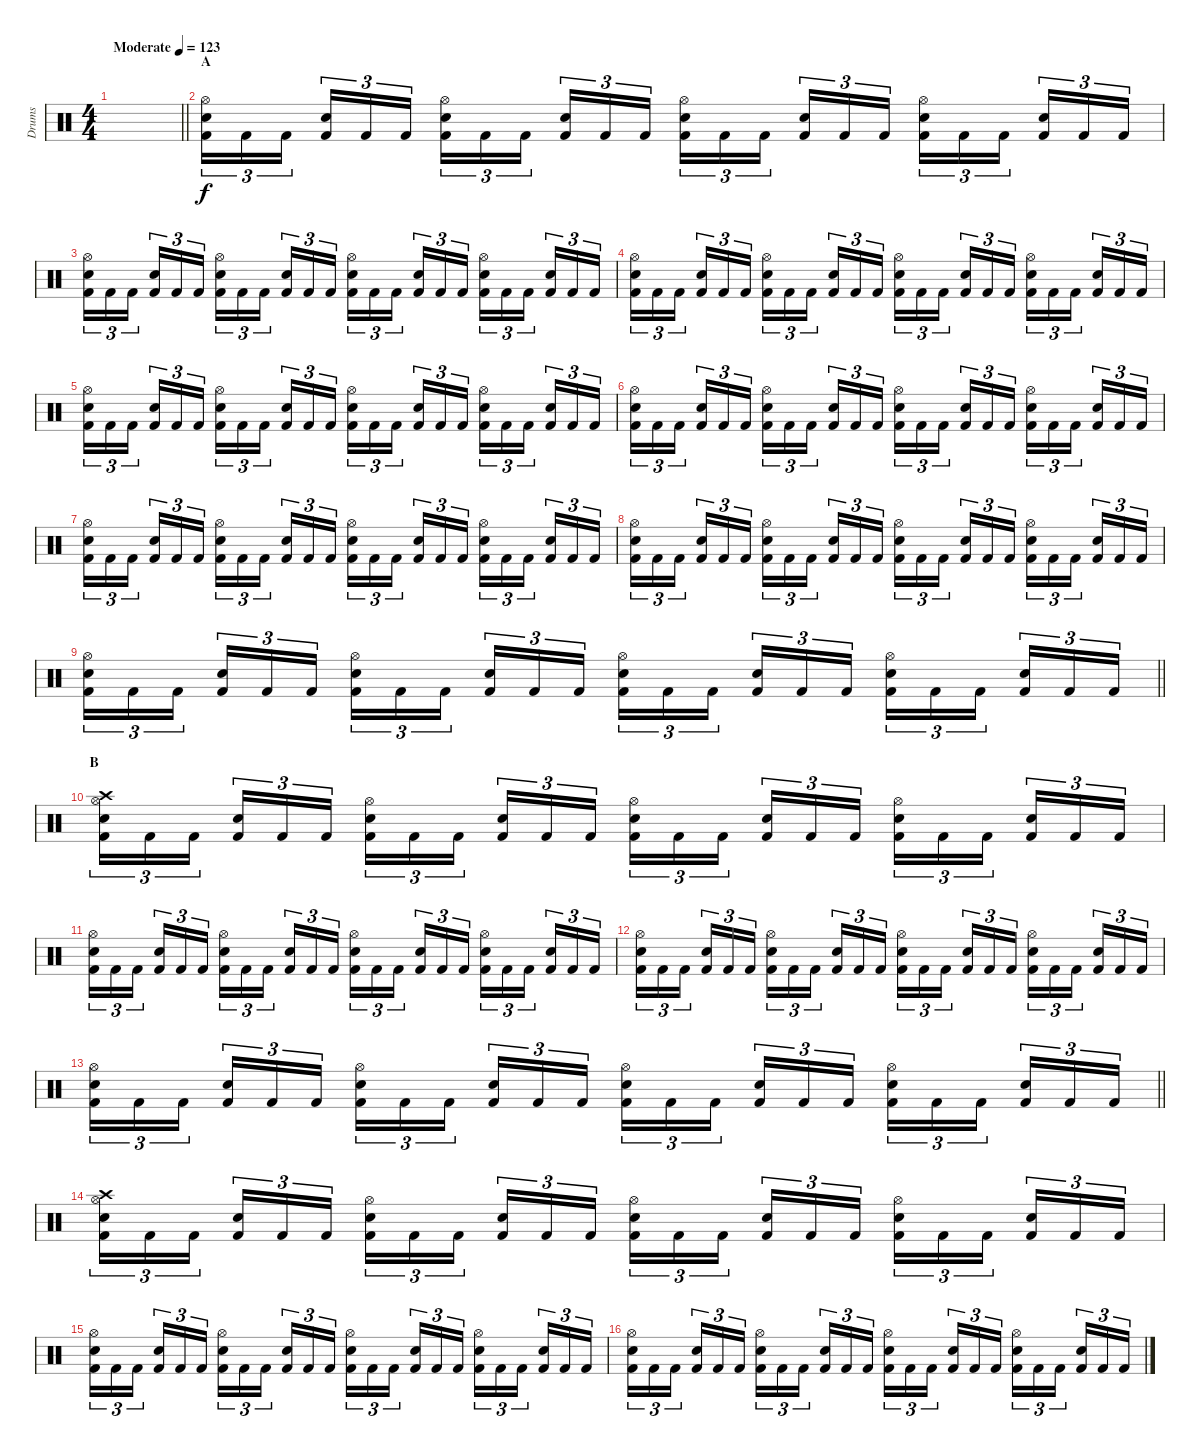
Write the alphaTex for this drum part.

\track ("Drums" "Drums") {instrument percussion}
\staff {score}
\articulation defaults
\ts (4 4)
\tempo (123 "Moderate")
\clef neutral
\barLineRight lightlight
\ks c
|
\section ("" "A")
("Hi-Hat (open)" "Snare (hit) 2" "Kick (hit) 2").16{tu (3 2)} "Kick (hit) 2".16{tu (3 2)} "Kick (hit) 2".16{tu (3 2) beam splitsecondary} ("Snare (hit) 2" "Kick (hit) 2").16{tu (3 2)} "Kick (hit) 2".16{tu (3 2)} "Kick (hit) 2".16{tu (3 2)} ("Hi-Hat (open)" "Snare (hit) 2" "Kick (hit) 2").16{tu (3 2)} "Kick (hit) 2".16{tu (3 2)} "Kick (hit) 2".16{tu (3 2) beam splitsecondary} ("Snare (hit) 2" "Kick (hit) 2").16{tu (3 2)} "Kick (hit) 2".16{tu (3 2)} "Kick (hit) 2".16{tu (3 2)} ("Hi-Hat (open)" "Snare (hit) 2" "Kick (hit) 2").16{tu (3 2)} "Kick (hit) 2".16{tu (3 2)} "Kick (hit) 2".16{tu (3 2) beam splitsecondary} ("Snare (hit) 2" "Kick (hit) 2").16{tu (3 2)} "Kick (hit) 2".16{tu (3 2)} "Kick (hit) 2".16{tu (3 2)} ("Hi-Hat (open)" "Snare (hit) 2" "Kick (hit) 2").16{tu (3 2)} "Kick (hit) 2".16{tu (3 2)} "Kick (hit) 2".16{tu (3 2) beam splitsecondary} ("Snare (hit) 2" "Kick (hit) 2").16{tu (3 2)} "Kick (hit) 2".16{tu (3 2)} "Kick (hit) 2".16{tu (3 2)} |
("Hi-Hat (open)" "Snare (hit) 2" "Kick (hit) 2").16{tu (3 2)} "Kick (hit) 2".16{tu (3 2)} "Kick (hit) 2".16{tu (3 2) beam splitsecondary} ("Snare (hit) 2" "Kick (hit) 2").16{tu (3 2)} "Kick (hit) 2".16{tu (3 2)} "Kick (hit) 2".16{tu (3 2)} ("Hi-Hat (open)" "Snare (hit) 2" "Kick (hit) 2").16{tu (3 2)} "Kick (hit) 2".16{tu (3 2)} "Kick (hit) 2".16{tu (3 2) beam splitsecondary} ("Snare (hit) 2" "Kick (hit) 2").16{tu (3 2)} "Kick (hit) 2".16{tu (3 2)} "Kick (hit) 2".16{tu (3 2)} ("Hi-Hat (open)" "Snare (hit) 2" "Kick (hit) 2").16{tu (3 2)} "Kick (hit) 2".16{tu (3 2)} "Kick (hit) 2".16{tu (3 2) beam splitsecondary} ("Snare (hit) 2" "Kick (hit) 2").16{tu (3 2)} "Kick (hit) 2".16{tu (3 2)} "Kick (hit) 2".16{tu (3 2)} ("Hi-Hat (open)" "Snare (hit) 2" "Kick (hit) 2").16{tu (3 2)} "Kick (hit) 2".16{tu (3 2)} "Kick (hit) 2".16{tu (3 2) beam splitsecondary} ("Snare (hit) 2" "Kick (hit) 2").16{tu (3 2)} "Kick (hit) 2".16{tu (3 2)} "Kick (hit) 2".16{tu (3 2)} |
("Hi-Hat (open)" "Snare (hit) 2" "Kick (hit) 2").16{tu (3 2)} "Kick (hit) 2".16{tu (3 2)} "Kick (hit) 2".16{tu (3 2) beam splitsecondary} ("Snare (hit) 2" "Kick (hit) 2").16{tu (3 2)} "Kick (hit) 2".16{tu (3 2)} "Kick (hit) 2".16{tu (3 2)} ("Hi-Hat (open)" "Snare (hit) 2" "Kick (hit) 2").16{tu (3 2)} "Kick (hit) 2".16{tu (3 2)} "Kick (hit) 2".16{tu (3 2) beam splitsecondary} ("Snare (hit) 2" "Kick (hit) 2").16{tu (3 2)} "Kick (hit) 2".16{tu (3 2)} "Kick (hit) 2".16{tu (3 2)} ("Hi-Hat (open)" "Snare (hit) 2" "Kick (hit) 2").16{tu (3 2)} "Kick (hit) 2".16{tu (3 2)} "Kick (hit) 2".16{tu (3 2) beam splitsecondary} ("Snare (hit) 2" "Kick (hit) 2").16{tu (3 2)} "Kick (hit) 2".16{tu (3 2)} "Kick (hit) 2".16{tu (3 2)} ("Hi-Hat (open)" "Snare (hit) 2" "Kick (hit) 2").16{tu (3 2)} "Kick (hit) 2".16{tu (3 2)} "Kick (hit) 2".16{tu (3 2) beam splitsecondary} ("Snare (hit) 2" "Kick (hit) 2").16{tu (3 2)} "Kick (hit) 2".16{tu (3 2)} "Kick (hit) 2".16{tu (3 2)} |
("Hi-Hat (open)" "Snare (hit) 2" "Kick (hit) 2").16{tu (3 2)} "Kick (hit) 2".16{tu (3 2)} "Kick (hit) 2".16{tu (3 2) beam splitsecondary} ("Snare (hit) 2" "Kick (hit) 2").16{tu (3 2)} "Kick (hit) 2".16{tu (3 2)} "Kick (hit) 2".16{tu (3 2)} ("Hi-Hat (open)" "Snare (hit) 2" "Kick (hit) 2").16{tu (3 2)} "Kick (hit) 2".16{tu (3 2)} "Kick (hit) 2".16{tu (3 2) beam splitsecondary} ("Snare (hit) 2" "Kick (hit) 2").16{tu (3 2)} "Kick (hit) 2".16{tu (3 2)} "Kick (hit) 2".16{tu (3 2)} ("Hi-Hat (open)" "Snare (hit) 2" "Kick (hit) 2").16{tu (3 2)} "Kick (hit) 2".16{tu (3 2)} "Kick (hit) 2".16{tu (3 2) beam splitsecondary} ("Snare (hit) 2" "Kick (hit) 2").16{tu (3 2)} "Kick (hit) 2".16{tu (3 2)} "Kick (hit) 2".16{tu (3 2)} ("Hi-Hat (open)" "Snare (hit) 2" "Kick (hit) 2").16{tu (3 2)} "Kick (hit) 2".16{tu (3 2)} "Kick (hit) 2".16{tu (3 2) beam splitsecondary} ("Snare (hit) 2" "Kick (hit) 2").16{tu (3 2)} "Kick (hit) 2".16{tu (3 2)} "Kick (hit) 2".16{tu (3 2)} |
("Hi-Hat (open)" "Snare (hit) 2" "Kick (hit) 2").16{tu (3 2)} "Kick (hit) 2".16{tu (3 2)} "Kick (hit) 2".16{tu (3 2) beam splitsecondary} ("Snare (hit) 2" "Kick (hit) 2").16{tu (3 2)} "Kick (hit) 2".16{tu (3 2)} "Kick (hit) 2".16{tu (3 2)} ("Hi-Hat (open)" "Snare (hit) 2" "Kick (hit) 2").16{tu (3 2)} "Kick (hit) 2".16{tu (3 2)} "Kick (hit) 2".16{tu (3 2) beam splitsecondary} ("Snare (hit) 2" "Kick (hit) 2").16{tu (3 2)} "Kick (hit) 2".16{tu (3 2)} "Kick (hit) 2".16{tu (3 2)} ("Hi-Hat (open)" "Snare (hit) 2" "Kick (hit) 2").16{tu (3 2)} "Kick (hit) 2".16{tu (3 2)} "Kick (hit) 2".16{tu (3 2) beam splitsecondary} ("Snare (hit) 2" "Kick (hit) 2").16{tu (3 2)} "Kick (hit) 2".16{tu (3 2)} "Kick (hit) 2".16{tu (3 2)} ("Hi-Hat (open)" "Snare (hit) 2" "Kick (hit) 2").16{tu (3 2)} "Kick (hit) 2".16{tu (3 2)} "Kick (hit) 2".16{tu (3 2) beam splitsecondary} ("Snare (hit) 2" "Kick (hit) 2").16{tu (3 2)} "Kick (hit) 2".16{tu (3 2)} "Kick (hit) 2".16{tu (3 2)} |
("Hi-Hat (open)" "Snare (hit) 2" "Kick (hit) 2").16{tu (3 2)} "Kick (hit) 2".16{tu (3 2)} "Kick (hit) 2".16{tu (3 2) beam splitsecondary} ("Snare (hit) 2" "Kick (hit) 2").16{tu (3 2)} "Kick (hit) 2".16{tu (3 2)} "Kick (hit) 2".16{tu (3 2)} ("Hi-Hat (open)" "Snare (hit) 2" "Kick (hit) 2").16{tu (3 2)} "Kick (hit) 2".16{tu (3 2)} "Kick (hit) 2".16{tu (3 2) beam splitsecondary} ("Snare (hit) 2" "Kick (hit) 2").16{tu (3 2)} "Kick (hit) 2".16{tu (3 2)} "Kick (hit) 2".16{tu (3 2)} ("Hi-Hat (open)" "Snare (hit) 2" "Kick (hit) 2").16{tu (3 2)} "Kick (hit) 2".16{tu (3 2)} "Kick (hit) 2".16{tu (3 2) beam splitsecondary} ("Snare (hit) 2" "Kick (hit) 2").16{tu (3 2)} "Kick (hit) 2".16{tu (3 2)} "Kick (hit) 2".16{tu (3 2)} ("Hi-Hat (open)" "Snare (hit) 2" "Kick (hit) 2").16{tu (3 2)} "Kick (hit) 2".16{tu (3 2)} "Kick (hit) 2".16{tu (3 2) beam splitsecondary} ("Snare (hit) 2" "Kick (hit) 2").16{tu (3 2)} "Kick (hit) 2".16{tu (3 2)} "Kick (hit) 2".16{tu (3 2)} |
("Hi-Hat (open)" "Snare (hit) 2" "Kick (hit) 2").16{tu (3 2)} "Kick (hit) 2".16{tu (3 2)} "Kick (hit) 2".16{tu (3 2) beam splitsecondary} ("Snare (hit) 2" "Kick (hit) 2").16{tu (3 2)} "Kick (hit) 2".16{tu (3 2)} "Kick (hit) 2".16{tu (3 2)} ("Hi-Hat (open)" "Snare (hit) 2" "Kick (hit) 2").16{tu (3 2)} "Kick (hit) 2".16{tu (3 2)} "Kick (hit) 2".16{tu (3 2) beam splitsecondary} ("Snare (hit) 2" "Kick (hit) 2").16{tu (3 2)} "Kick (hit) 2".16{tu (3 2)} "Kick (hit) 2".16{tu (3 2)} ("Hi-Hat (open)" "Snare (hit) 2" "Kick (hit) 2").16{tu (3 2)} "Kick (hit) 2".16{tu (3 2)} "Kick (hit) 2".16{tu (3 2) beam splitsecondary} ("Snare (hit) 2" "Kick (hit) 2").16{tu (3 2)} "Kick (hit) 2".16{tu (3 2)} "Kick (hit) 2".16{tu (3 2)} ("Hi-Hat (open)" "Snare (hit) 2" "Kick (hit) 2").16{tu (3 2)} "Kick (hit) 2".16{tu (3 2)} "Kick (hit) 2".16{tu (3 2) beam splitsecondary} ("Snare (hit) 2" "Kick (hit) 2").16{tu (3 2)} "Kick (hit) 2".16{tu (3 2)} "Kick (hit) 2".16{tu (3 2)} |
\barLineRight lightlight
("Hi-Hat (open)" "Snare (hit) 2" "Kick (hit) 2").16{tu (3 2)} "Kick (hit) 2".16{tu (3 2)} "Kick (hit) 2".16{tu (3 2) beam splitsecondary} ("Snare (hit) 2" "Kick (hit) 2").16{tu (3 2)} "Kick (hit) 2".16{tu (3 2)} "Kick (hit) 2".16{tu (3 2)} ("Hi-Hat (open)" "Snare (hit) 2" "Kick (hit) 2").16{tu (3 2)} "Kick (hit) 2".16{tu (3 2)} "Kick (hit) 2".16{tu (3 2) beam splitsecondary} ("Snare (hit) 2" "Kick (hit) 2").16{tu (3 2)} "Kick (hit) 2".16{tu (3 2)} "Kick (hit) 2".16{tu (3 2)} ("Hi-Hat (open)" "Snare (hit) 2" "Kick (hit) 2").16{tu (3 2)} "Kick (hit) 2".16{tu (3 2)} "Kick (hit) 2".16{tu (3 2) beam splitsecondary} ("Snare (hit) 2" "Kick (hit) 2").16{tu (3 2)} "Kick (hit) 2".16{tu (3 2)} "Kick (hit) 2".16{tu (3 2)} ("Hi-Hat (open)" "Snare (hit) 2" "Kick (hit) 2").16{tu (3 2)} "Kick (hit) 2".16{tu (3 2)} "Kick (hit) 2".16{tu (3 2) beam splitsecondary} ("Snare (hit) 2" "Kick (hit) 2").16{tu (3 2)} "Kick (hit) 2".16{tu (3 2)} "Kick (hit) 2".16{tu (3 2)} |
\section ("" "B")
("Crash high (hit)" "Hi-Hat (open)" "Snare (hit) 2" "Kick (hit) 2").16{tu (3 2)} "Kick (hit) 2".16{tu (3 2)} "Kick (hit) 2".16{tu (3 2) beam splitsecondary} ("Snare (hit) 2" "Kick (hit) 2").16{tu (3 2)} "Kick (hit) 2".16{tu (3 2)} "Kick (hit) 2".16{tu (3 2)} ("Hi-Hat (open)" "Snare (hit) 2" "Kick (hit) 2").16{tu (3 2)} "Kick (hit) 2".16{tu (3 2)} "Kick (hit) 2".16{tu (3 2) beam splitsecondary} ("Snare (hit) 2" "Kick (hit) 2").16{tu (3 2)} "Kick (hit) 2".16{tu (3 2)} "Kick (hit) 2".16{tu (3 2)} ("Hi-Hat (open)" "Snare (hit) 2" "Kick (hit) 2").16{tu (3 2)} "Kick (hit) 2".16{tu (3 2)} "Kick (hit) 2".16{tu (3 2) beam splitsecondary} ("Snare (hit) 2" "Kick (hit) 2").16{tu (3 2)} "Kick (hit) 2".16{tu (3 2)} "Kick (hit) 2".16{tu (3 2)} ("Hi-Hat (open)" "Snare (hit) 2" "Kick (hit) 2").16{tu (3 2)} "Kick (hit) 2".16{tu (3 2)} "Kick (hit) 2".16{tu (3 2) beam splitsecondary} ("Snare (hit) 2" "Kick (hit) 2").16{tu (3 2)} "Kick (hit) 2".16{tu (3 2)} "Kick (hit) 2".16{tu (3 2)} |
("Hi-Hat (open)" "Snare (hit) 2" "Kick (hit) 2").16{tu (3 2)} "Kick (hit) 2".16{tu (3 2)} "Kick (hit) 2".16{tu (3 2) beam splitsecondary} ("Snare (hit) 2" "Kick (hit) 2").16{tu (3 2)} "Kick (hit) 2".16{tu (3 2)} "Kick (hit) 2".16{tu (3 2)} ("Hi-Hat (open)" "Snare (hit) 2" "Kick (hit) 2").16{tu (3 2)} "Kick (hit) 2".16{tu (3 2)} "Kick (hit) 2".16{tu (3 2) beam splitsecondary} ("Snare (hit) 2" "Kick (hit) 2").16{tu (3 2)} "Kick (hit) 2".16{tu (3 2)} "Kick (hit) 2".16{tu (3 2)} ("Hi-Hat (open)" "Snare (hit) 2" "Kick (hit) 2").16{tu (3 2)} "Kick (hit) 2".16{tu (3 2)} "Kick (hit) 2".16{tu (3 2) beam splitsecondary} ("Snare (hit) 2" "Kick (hit) 2").16{tu (3 2)} "Kick (hit) 2".16{tu (3 2)} "Kick (hit) 2".16{tu (3 2)} ("Hi-Hat (open)" "Snare (hit) 2" "Kick (hit) 2").16{tu (3 2)} "Kick (hit) 2".16{tu (3 2)} "Kick (hit) 2".16{tu (3 2) beam splitsecondary} ("Snare (hit) 2" "Kick (hit) 2").16{tu (3 2)} "Kick (hit) 2".16{tu (3 2)} "Kick (hit) 2".16{tu (3 2)} |
("Hi-Hat (open)" "Snare (hit) 2" "Kick (hit) 2").16{tu (3 2)} "Kick (hit) 2".16{tu (3 2)} "Kick (hit) 2".16{tu (3 2) beam splitsecondary} ("Snare (hit) 2" "Kick (hit) 2").16{tu (3 2)} "Kick (hit) 2".16{tu (3 2)} "Kick (hit) 2".16{tu (3 2)} ("Hi-Hat (open)" "Snare (hit) 2" "Kick (hit) 2").16{tu (3 2)} "Kick (hit) 2".16{tu (3 2)} "Kick (hit) 2".16{tu (3 2) beam splitsecondary} ("Snare (hit) 2" "Kick (hit) 2").16{tu (3 2)} "Kick (hit) 2".16{tu (3 2)} "Kick (hit) 2".16{tu (3 2)} ("Hi-Hat (open)" "Snare (hit) 2" "Kick (hit) 2").16{tu (3 2)} "Kick (hit) 2".16{tu (3 2)} "Kick (hit) 2".16{tu (3 2) beam splitsecondary} ("Snare (hit) 2" "Kick (hit) 2").16{tu (3 2)} "Kick (hit) 2".16{tu (3 2)} "Kick (hit) 2".16{tu (3 2)} ("Hi-Hat (open)" "Snare (hit) 2" "Kick (hit) 2").16{tu (3 2)} "Kick (hit) 2".16{tu (3 2)} "Kick (hit) 2".16{tu (3 2) beam splitsecondary} ("Snare (hit) 2" "Kick (hit) 2").16{tu (3 2)} "Kick (hit) 2".16{tu (3 2)} "Kick (hit) 2".16{tu (3 2)} |
\barLineRight lightlight
("Hi-Hat (open)" "Snare (hit) 2" "Kick (hit) 2").16{tu (3 2)} "Kick (hit) 2".16{tu (3 2)} "Kick (hit) 2".16{tu (3 2) beam splitsecondary} ("Snare (hit) 2" "Kick (hit) 2").16{tu (3 2)} "Kick (hit) 2".16{tu (3 2)} "Kick (hit) 2".16{tu (3 2)} ("Hi-Hat (open)" "Snare (hit) 2" "Kick (hit) 2").16{tu (3 2)} "Kick (hit) 2".16{tu (3 2)} "Kick (hit) 2".16{tu (3 2) beam splitsecondary} ("Snare (hit) 2" "Kick (hit) 2").16{tu (3 2)} "Kick (hit) 2".16{tu (3 2)} "Kick (hit) 2".16{tu (3 2)} ("Hi-Hat (open)" "Snare (hit) 2" "Kick (hit) 2").16{tu (3 2)} "Kick (hit) 2".16{tu (3 2)} "Kick (hit) 2".16{tu (3 2) beam splitsecondary} ("Snare (hit) 2" "Kick (hit) 2").16{tu (3 2)} "Kick (hit) 2".16{tu (3 2)} "Kick (hit) 2".16{tu (3 2)} ("Hi-Hat (open)" "Snare (hit) 2" "Kick (hit) 2").16{tu (3 2)} "Kick (hit) 2".16{tu (3 2)} "Kick (hit) 2".16{tu (3 2) beam splitsecondary} ("Snare (hit) 2" "Kick (hit) 2").16{tu (3 2)} "Kick (hit) 2".16{tu (3 2)} "Kick (hit) 2".16{tu (3 2)} |
("Crash high (hit)" "Hi-Hat (open)" "Snare (hit) 2" "Kick (hit) 2").16{tu (3 2)} "Kick (hit) 2".16{tu (3 2)} "Kick (hit) 2".16{tu (3 2) beam splitsecondary} ("Snare (hit) 2" "Kick (hit) 2").16{tu (3 2)} "Kick (hit) 2".16{tu (3 2)} "Kick (hit) 2".16{tu (3 2)} ("Hi-Hat (open)" "Snare (hit) 2" "Kick (hit) 2").16{tu (3 2)} "Kick (hit) 2".16{tu (3 2)} "Kick (hit) 2".16{tu (3 2) beam splitsecondary} ("Snare (hit) 2" "Kick (hit) 2").16{tu (3 2)} "Kick (hit) 2".16{tu (3 2)} "Kick (hit) 2".16{tu (3 2)} ("Hi-Hat (open)" "Snare (hit) 2" "Kick (hit) 2").16{tu (3 2)} "Kick (hit) 2".16{tu (3 2)} "Kick (hit) 2".16{tu (3 2) beam splitsecondary} ("Snare (hit) 2" "Kick (hit) 2").16{tu (3 2)} "Kick (hit) 2".16{tu (3 2)} "Kick (hit) 2".16{tu (3 2)} ("Hi-Hat (open)" "Snare (hit) 2" "Kick (hit) 2").16{tu (3 2)} "Kick (hit) 2".16{tu (3 2)} "Kick (hit) 2".16{tu (3 2) beam splitsecondary} ("Snare (hit) 2" "Kick (hit) 2").16{tu (3 2)} "Kick (hit) 2".16{tu (3 2)} "Kick (hit) 2".16{tu (3 2)} |
("Hi-Hat (open)" "Snare (hit) 2" "Kick (hit) 2").16{tu (3 2)} "Kick (hit) 2".16{tu (3 2)} "Kick (hit) 2".16{tu (3 2) beam splitsecondary} ("Snare (hit) 2" "Kick (hit) 2").16{tu (3 2)} "Kick (hit) 2".16{tu (3 2)} "Kick (hit) 2".16{tu (3 2)} ("Hi-Hat (open)" "Snare (hit) 2" "Kick (hit) 2").16{tu (3 2)} "Kick (hit) 2".16{tu (3 2)} "Kick (hit) 2".16{tu (3 2) beam splitsecondary} ("Snare (hit) 2" "Kick (hit) 2").16{tu (3 2)} "Kick (hit) 2".16{tu (3 2)} "Kick (hit) 2".16{tu (3 2)} ("Hi-Hat (open)" "Snare (hit) 2" "Kick (hit) 2").16{tu (3 2)} "Kick (hit) 2".16{tu (3 2)} "Kick (hit) 2".16{tu (3 2) beam splitsecondary} ("Snare (hit) 2" "Kick (hit) 2").16{tu (3 2)} "Kick (hit) 2".16{tu (3 2)} "Kick (hit) 2".16{tu (3 2)} ("Hi-Hat (open)" "Snare (hit) 2" "Kick (hit) 2").16{tu (3 2)} "Kick (hit) 2".16{tu (3 2)} "Kick (hit) 2".16{tu (3 2) beam splitsecondary} ("Snare (hit) 2" "Kick (hit) 2").16{tu (3 2)} "Kick (hit) 2".16{tu (3 2)} "Kick (hit) 2".16{tu (3 2)} |
("Hi-Hat (open)" "Snare (hit) 2" "Kick (hit) 2").16{tu (3 2)} "Kick (hit) 2".16{tu (3 2)} "Kick (hit) 2".16{tu (3 2) beam splitsecondary} ("Snare (hit) 2" "Kick (hit) 2").16{tu (3 2)} "Kick (hit) 2".16{tu (3 2)} "Kick (hit) 2".16{tu (3 2)} ("Hi-Hat (open)" "Snare (hit) 2" "Kick (hit) 2").16{tu (3 2)} "Kick (hit) 2".16{tu (3 2)} "Kick (hit) 2".16{tu (3 2) beam splitsecondary} ("Snare (hit) 2" "Kick (hit) 2").16{tu (3 2)} "Kick (hit) 2".16{tu (3 2)} "Kick (hit) 2".16{tu (3 2)} ("Hi-Hat (open)" "Snare (hit) 2" "Kick (hit) 2").16{tu (3 2)} "Kick (hit) 2".16{tu (3 2)} "Kick (hit) 2".16{tu (3 2) beam splitsecondary} ("Snare (hit) 2" "Kick (hit) 2").16{tu (3 2)} "Kick (hit) 2".16{tu (3 2)} "Kick (hit) 2".16{tu (3 2)} ("Hi-Hat (open)" "Snare (hit) 2" "Kick (hit) 2").16{tu (3 2)} "Kick (hit) 2".16{tu (3 2)} "Kick (hit) 2".16{tu (3 2) beam splitsecondary} ("Snare (hit) 2" "Kick (hit) 2").16{tu (3 2)} "Kick (hit) 2".16{tu (3 2)} "Kick (hit) 2".16{tu (3 2)}
